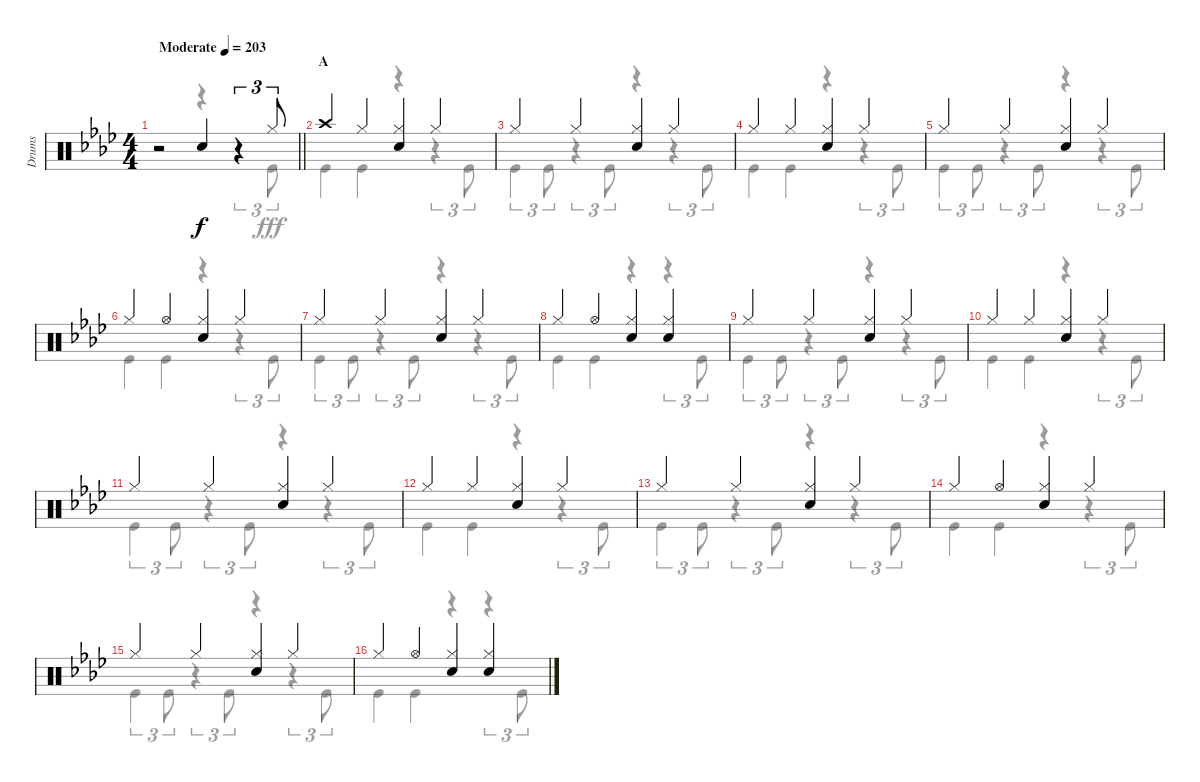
\track ("Drums" "Drums") {instrument percussion}
\staff {score}
\articulation defaults
\voice
\ts (4 4)
\tempo (203 "Moderate")
\clef neutral
\barLineRight lightlight
\ks ab
r.2{dy f} "Snare (hit) 2".4 r.4{tu (3 2)} "Hi-Hat (closed)".8{tu (3 2)} |
\section ("" "A")
"Crash high (hit)".4 "Hi-Hat (closed)".4 ("Hi-Hat (closed)" "Snare (hit) 2").4 "Hi-Hat (closed)".4 |
"Hi-Hat (closed)".4 "Hi-Hat (closed)".4 ("Hi-Hat (closed)" "Snare (hit) 2").4 "Hi-Hat (closed)".4 |
"Hi-Hat (closed)".4 "Hi-Hat (closed)".4 ("Hi-Hat (closed)" "Snare (hit) 2").4 "Hi-Hat (closed)".4 |
"Hi-Hat (closed)".4 "Hi-Hat (closed)".4 ("Hi-Hat (closed)" "Snare (hit) 2").4 "Hi-Hat (closed)".4 |
"Hi-Hat (closed)".4 "Hi-Hat (open)".4 ("Hi-Hat (closed)" "Snare (hit) 2").4 "Hi-Hat (closed)".4 |
"Hi-Hat (closed)".4 "Hi-Hat (closed)".4 ("Hi-Hat (closed)" "Snare (hit) 2").4 "Hi-Hat (closed)".4 |
"Hi-Hat (closed)".4 "Hi-Hat (open)".4 ("Hi-Hat (closed)" "Snare (hit) 2").4 ("Hi-Hat (closed)" "Snare (hit) 2").4 |
"Hi-Hat (closed)".4 "Hi-Hat (closed)".4 ("Hi-Hat (closed)" "Snare (hit) 2").4 "Hi-Hat (closed)".4 |
"Hi-Hat (closed)".4 "Hi-Hat (closed)".4 ("Hi-Hat (closed)" "Snare (hit) 2").4 "Hi-Hat (closed)".4 |
"Hi-Hat (closed)".4 "Hi-Hat (closed)".4 ("Hi-Hat (closed)" "Snare (hit) 2").4 "Hi-Hat (closed)".4 |
"Hi-Hat (closed)".4 "Hi-Hat (closed)".4 ("Hi-Hat (closed)" "Snare (hit) 2").4 "Hi-Hat (closed)".4 |
"Hi-Hat (closed)".4 "Hi-Hat (closed)".4 ("Hi-Hat (closed)" "Snare (hit) 2").4 "Hi-Hat (closed)".4 |
"Hi-Hat (closed)".4 "Hi-Hat (open)".4 ("Hi-Hat (closed)" "Snare (hit) 2").4 "Hi-Hat (closed)".4 |
"Hi-Hat (closed)".4 "Hi-Hat (closed)".4 ("Hi-Hat (closed)" "Snare (hit) 2").4 "Hi-Hat (closed)".4 |
"Hi-Hat (closed)".4 "Hi-Hat (open)".4 ("Hi-Hat (closed)" "Snare (hit) 2").4 ("Hi-Hat (closed)" "Snare (hit) 2").4
\voice
\clef neutral
\ottava regular
\simile none
\barLineRight lightlight
\ks ab
r.2{dy fff} r.4 r.4{tu (3 2)} "Kick (hit)".8{tu (3 2)} |
"Kick (hit)".4 "Kick (hit)".4 r.4 r.4{tu (3 2)} "Kick (hit)".8{tu (3 2)} |
"Kick (hit)".4{tu (3 2)} "Kick (hit)".8{tu (3 2)} r.4{tu (3 2)} "Kick (hit)".8{tu (3 2)} r.4 r.4{tu (3 2)} "Kick (hit)".8{tu (3 2)} |
"Kick (hit)".4 "Kick (hit)".4 r.4 r.4{tu (3 2)} "Kick (hit)".8{tu (3 2)} |
"Kick (hit)".4{tu (3 2)} "Kick (hit)".8{tu (3 2)} r.4{tu (3 2)} "Kick (hit)".8{tu (3 2)} r.4 r.4{tu (3 2)} "Kick (hit)".8{tu (3 2)} |
"Kick (hit)".4 "Kick (hit)".4 r.4 r.4{tu (3 2)} "Kick (hit)".8{tu (3 2)} |
"Kick (hit)".4{tu (3 2)} "Kick (hit)".8{tu (3 2)} r.4{tu (3 2)} "Kick (hit)".8{tu (3 2)} r.4 r.4{tu (3 2)} "Kick (hit)".8{tu (3 2)} |
"Kick (hit)".4 "Kick (hit)".4 r.4 r.4{tu (3 2)} "Kick (hit)".8{tu (3 2)} |
"Kick (hit)".4{tu (3 2)} "Kick (hit)".8{tu (3 2)} r.4{tu (3 2)} "Kick (hit)".8{tu (3 2)} r.4 r.4{tu (3 2)} "Kick (hit)".8{tu (3 2)} |
"Kick (hit)".4 "Kick (hit)".4 r.4 r.4{tu (3 2)} "Kick (hit)".8{tu (3 2)} |
"Kick (hit)".4{tu (3 2)} "Kick (hit)".8{tu (3 2)} r.4{tu (3 2)} "Kick (hit)".8{tu (3 2)} r.4 r.4{tu (3 2)} "Kick (hit)".8{tu (3 2)} |
"Kick (hit)".4 "Kick (hit)".4 r.4 r.4{tu (3 2)} "Kick (hit)".8{tu (3 2)} |
"Kick (hit)".4{tu (3 2)} "Kick (hit)".8{tu (3 2)} r.4{tu (3 2)} "Kick (hit)".8{tu (3 2)} r.4 r.4{tu (3 2)} "Kick (hit)".8{tu (3 2)} |
"Kick (hit)".4 "Kick (hit)".4 r.4 r.4{tu (3 2)} "Kick (hit)".8{tu (3 2)} |
"Kick (hit)".4{tu (3 2)} "Kick (hit)".8{tu (3 2)} r.4{tu (3 2)} "Kick (hit)".8{tu (3 2)} r.4 r.4{tu (3 2)} "Kick (hit)".8{tu (3 2)} |
"Kick (hit)".4 "Kick (hit)".4 r.4 r.4{tu (3 2)} "Kick (hit)".8{tu (3 2)}
